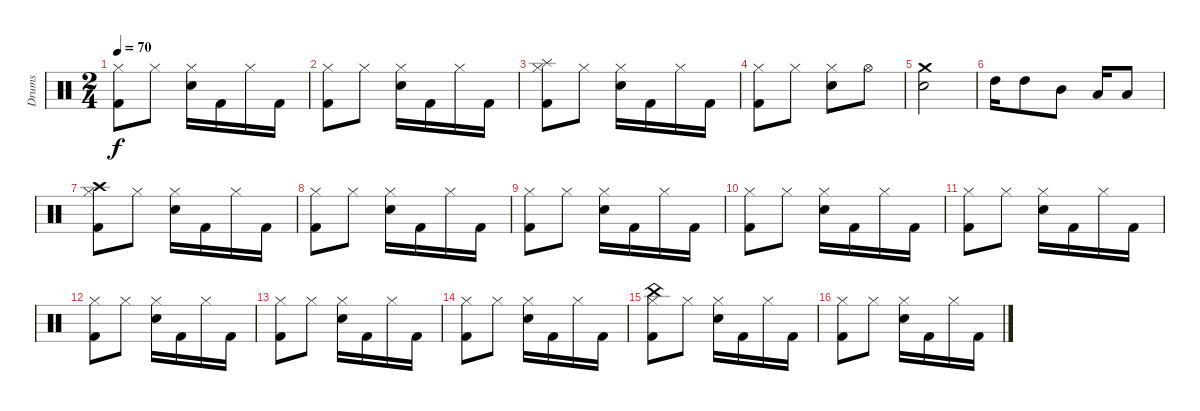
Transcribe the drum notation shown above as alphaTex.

\track ("Drums" "Drums") {instrument percussion}
\staff {score}
\articulation defaults
\ts (2 4)
\tempo 70
\clef neutral
\ks c
("Hi-Hat (closed)" "Kick (hit) 2").8{dy f} "Hi-Hat (closed)".8 ("Hi-Hat (closed)" "Electric Snare (hit)").16 "Kick (hit) 2".16 "Hi-Hat (closed)".16 "Kick (hit) 2".16 |
("Hi-Hat (closed)" "Kick (hit) 2").8 "Hi-Hat (closed)".8 ("Hi-Hat (closed)" "Electric Snare (hit)").16 "Kick (hit) 2".16 "Hi-Hat (closed)".16 "Kick (hit) 2".16 |
("Splash (hit)" "Hi-Hat (closed)" "Kick (hit) 2").8 "Hi-Hat (closed)".8 ("Hi-Hat (closed)" "Electric Snare (hit)").16 "Kick (hit) 2".16 "Hi-Hat (closed)".16 "Kick (hit) 2".16 |
("Hi-Hat (closed)" "Kick (hit) 2").8 "Hi-Hat (closed)".8 ("Hi-Hat (closed)" "Electric Snare (hit)").8 "Hi-Hat (open)".8 |
("Crash medium (hit)" "Electric Snare (hit)").2 |
"High Tom (hit)".16 "High Tom (hit)".8 "Mid Tom (hit)".8 "Low Tom (hit)".16 "Low Tom (hit)".8 |
("Crash high (hit)" "Hi-Hat (closed)" "Kick (hit) 2").8 "Hi-Hat (closed)".8 ("Hi-Hat (closed)" "Electric Snare (hit)").16 "Kick (hit) 2".16 "Hi-Hat (closed)".16 "Kick (hit) 2".16 |
("Hi-Hat (closed)" "Kick (hit) 2").8 "Hi-Hat (closed)".8 ("Hi-Hat (closed)" "Electric Snare (hit)").16 "Kick (hit) 2".16 "Hi-Hat (closed)".16 "Kick (hit) 2".16 |
("Hi-Hat (closed)" "Kick (hit) 2").8 "Hi-Hat (closed)".8 ("Hi-Hat (closed)" "Electric Snare (hit)").16 "Kick (hit) 2".16 "Hi-Hat (closed)".16 "Kick (hit) 2".16 |
("Hi-Hat (closed)" "Kick (hit) 2").8 "Hi-Hat (closed)".8 ("Hi-Hat (closed)" "Electric Snare (hit)").16 "Kick (hit) 2".16 "Hi-Hat (closed)".16 "Kick (hit) 2".16 |
("Hi-Hat (closed)" "Kick (hit) 2").8 "Hi-Hat (closed)".8 ("Hi-Hat (closed)" "Electric Snare (hit)").16 "Kick (hit) 2".16 "Hi-Hat (closed)".16 "Kick (hit) 2".16 |
("Hi-Hat (closed)" "Kick (hit) 2").8 "Hi-Hat (closed)".8 ("Hi-Hat (closed)" "Electric Snare (hit)").16 "Kick (hit) 2".16 "Hi-Hat (closed)".16 "Kick (hit) 2".16 |
("Hi-Hat (closed)" "Kick (hit) 2").8 "Hi-Hat (closed)".8 ("Hi-Hat (closed)" "Electric Snare (hit)").16 "Kick (hit) 2".16 "Hi-Hat (closed)".16 "Kick (hit) 2".16 |
("Hi-Hat (closed)" "Kick (hit) 2").8 "Hi-Hat (closed)".8 ("Hi-Hat (closed)" "Electric Snare (hit)").16 "Kick (hit) 2".16 "Hi-Hat (closed)".16 "Kick (hit) 2".16 |
("China (hit)" "Hi-Hat (closed)" "Kick (hit) 2").8 "Hi-Hat (closed)".8 ("Hi-Hat (closed)" "Electric Snare (hit)").16 "Kick (hit) 2".16 "Hi-Hat (closed)".16 "Kick (hit) 2".16 |
("Hi-Hat (closed)" "Kick (hit) 2").8 "Hi-Hat (closed)".8 ("Hi-Hat (closed)" "Electric Snare (hit)").16 "Kick (hit) 2".16 "Hi-Hat (closed)".16 "Kick (hit) 2".16
